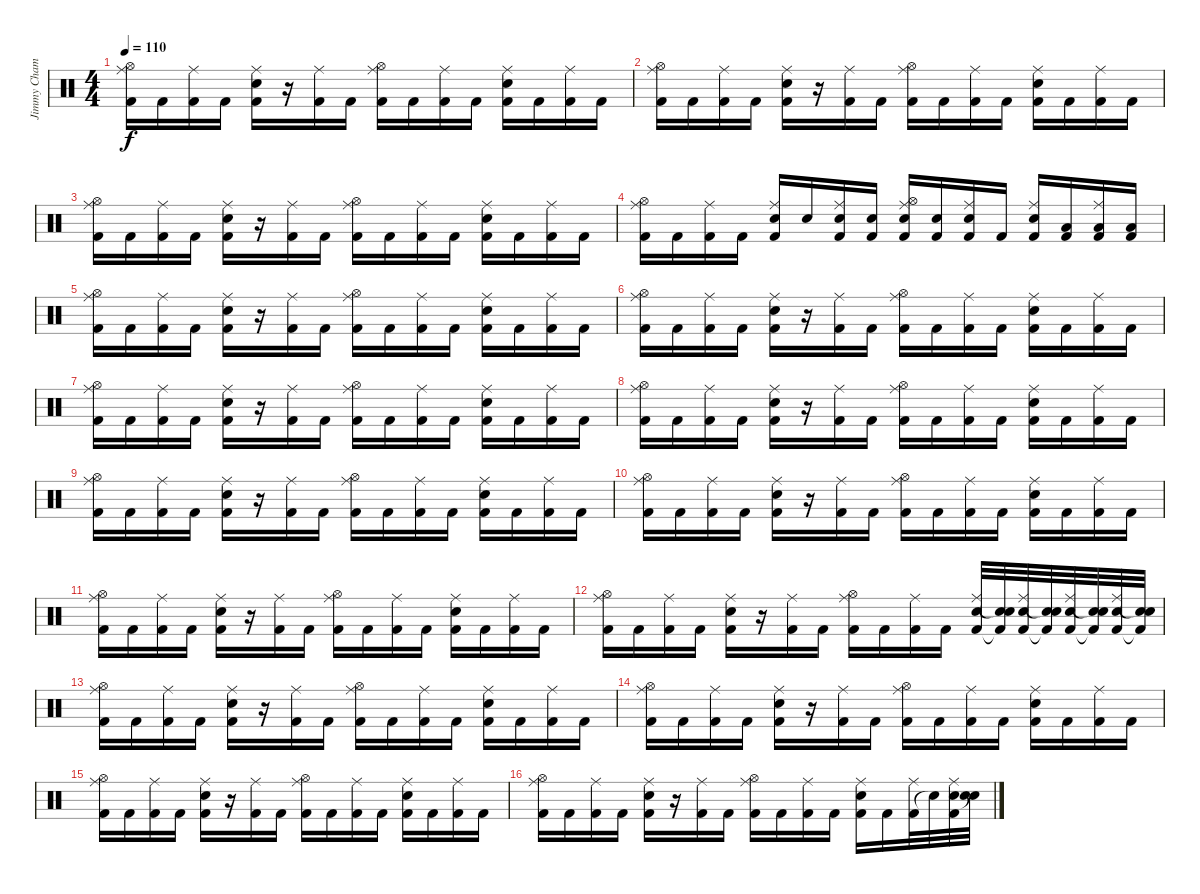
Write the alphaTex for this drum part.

\track ("Jimmy Chamberlin" "Jimmy Cham") {instrument percussion}
\staff {score}
\articulation defaults
\ts (4 4)
\tempo 110
\clef neutral
\ks c
("Kick (hit) 2" "Hi-Hat (open)" "Ride (middle)").16{dy f} "Kick (hit) 2".16 ("Kick (hit) 2" "Ride (middle)").16 "Kick (hit) 2".16 ("Kick (hit) 2" "Snare (hit) 2" "Ride (middle)").16 r.16 ("Kick (hit) 2" "Ride (middle)").16 "Kick (hit) 2".16 ("Kick (hit) 2" "Hi-Hat (open)" "Ride (middle)").16 "Kick (hit) 2".16 ("Kick (hit) 2" "Ride (middle)").16 "Kick (hit) 2".16 ("Kick (hit) 2" "Snare (hit) 2" "Ride (middle)").16 "Kick (hit) 2".16 ("Kick (hit) 2" "Ride (middle)").16 "Kick (hit) 2".16 |
("Kick (hit) 2" "Hi-Hat (open)" "Ride (middle)").16 "Kick (hit) 2".16 ("Kick (hit) 2" "Ride (middle)").16 "Kick (hit) 2".16 ("Kick (hit) 2" "Snare (hit) 2" "Ride (middle)").16 r.16 ("Kick (hit) 2" "Ride (middle)").16 "Kick (hit) 2".16 ("Kick (hit) 2" "Hi-Hat (open)" "Ride (middle)").16 "Kick (hit) 2".16 ("Kick (hit) 2" "Ride (middle)").16 "Kick (hit) 2".16 ("Kick (hit) 2" "Snare (hit) 2" "Ride (middle)").16 "Kick (hit) 2".16 ("Kick (hit) 2" "Ride (middle)").16 "Kick (hit) 2".16 |
("Kick (hit) 2" "Hi-Hat (open)" "Ride (middle)").16 "Kick (hit) 2".16 ("Kick (hit) 2" "Ride (middle)").16 "Kick (hit) 2".16 ("Kick (hit) 2" "Snare (hit) 2" "Ride (middle)").16 r.16 ("Kick (hit) 2" "Ride (middle)").16 "Kick (hit) 2".16 ("Kick (hit) 2" "Hi-Hat (open)" "Ride (middle)").16 "Kick (hit) 2".16 ("Kick (hit) 2" "Ride (middle)").16 "Kick (hit) 2".16 ("Kick (hit) 2" "Snare (hit) 2" "Ride (middle)").16 "Kick (hit) 2".16 ("Kick (hit) 2" "Ride (middle)").16 "Kick (hit) 2".16 |
("Kick (hit) 2" "Hi-Hat (open)" "Ride (middle)").16 "Kick (hit) 2".16 ("Kick (hit) 2" "Ride (middle)").16 "Kick (hit) 2".16 ("Kick (hit) 2" "Snare (hit) 2" "Ride (middle)").16 "Snare (hit) 2".16 ("Kick (hit) 2" "Snare (hit) 2" "Ride (middle)").16 ("Kick (hit) 2" "Snare (hit) 2").16 ("Kick (hit) 2" "Snare (hit) 2" "Hi-Hat (open)" "Ride (middle)").16 ("Kick (hit) 2" "Snare (hit) 2").16 ("Kick (hit) 2" "Snare (hit) 2" "Ride (middle)").16 "Kick (hit) 2".16 ("Kick (hit) 2" "Snare (hit) 2" "Ride (middle)").16 ("Kick (hit) 2" "Low Floor Tom (hit)").16 ("Kick (hit) 2" "Low Floor Tom (hit)" "Ride (middle)").16 ("Kick (hit) 2" "Low Floor Tom (hit)").16 |
("Kick (hit) 2" "Hi-Hat (open)" "Ride (middle)").16 "Kick (hit) 2".16 ("Kick (hit) 2" "Ride (middle)").16 "Kick (hit) 2".16 ("Kick (hit) 2" "Snare (hit) 2" "Ride (middle)").16 r.16 ("Kick (hit) 2" "Ride (middle)").16 "Kick (hit) 2".16 ("Kick (hit) 2" "Hi-Hat (open)" "Ride (middle)").16 "Kick (hit) 2".16 ("Kick (hit) 2" "Ride (middle)").16 "Kick (hit) 2".16 ("Kick (hit) 2" "Snare (hit) 2" "Ride (middle)").16 "Kick (hit) 2".16 ("Kick (hit) 2" "Ride (middle)").16 "Kick (hit) 2".16 |
("Kick (hit) 2" "Hi-Hat (open)" "Ride (middle)").16 "Kick (hit) 2".16 ("Kick (hit) 2" "Ride (middle)").16 "Kick (hit) 2".16 ("Kick (hit) 2" "Snare (hit) 2" "Ride (middle)").16 r.16 ("Kick (hit) 2" "Ride (middle)").16 "Kick (hit) 2".16 ("Kick (hit) 2" "Hi-Hat (open)" "Ride (middle)").16 "Kick (hit) 2".16 ("Kick (hit) 2" "Ride (middle)").16 "Kick (hit) 2".16 ("Kick (hit) 2" "Snare (hit) 2" "Ride (middle)").16 "Kick (hit) 2".16 ("Kick (hit) 2" "Ride (middle)").16 "Kick (hit) 2".16 |
("Kick (hit) 2" "Hi-Hat (open)" "Ride (middle)").16 "Kick (hit) 2".16 ("Kick (hit) 2" "Ride (middle)").16 "Kick (hit) 2".16 ("Kick (hit) 2" "Snare (hit) 2" "Ride (middle)").16 r.16 ("Kick (hit) 2" "Ride (middle)").16 "Kick (hit) 2".16 ("Kick (hit) 2" "Hi-Hat (open)" "Ride (middle)").16 "Kick (hit) 2".16 ("Kick (hit) 2" "Ride (middle)").16 "Kick (hit) 2".16 ("Kick (hit) 2" "Snare (hit) 2" "Ride (middle)").16 "Kick (hit) 2".16 ("Kick (hit) 2" "Ride (middle)").16 "Kick (hit) 2".16 |
("Kick (hit) 2" "Hi-Hat (open)" "Ride (middle)").16 "Kick (hit) 2".16 ("Kick (hit) 2" "Ride (middle)").16 "Kick (hit) 2".16 ("Kick (hit) 2" "Snare (hit) 2" "Ride (middle)").16 r.16 ("Kick (hit) 2" "Ride (middle)").16 "Kick (hit) 2".16 ("Kick (hit) 2" "Hi-Hat (open)" "Ride (middle)").16 "Kick (hit) 2".16 ("Kick (hit) 2" "Ride (middle)").16 "Kick (hit) 2".16 ("Kick (hit) 2" "Snare (hit) 2" "Ride (middle)").16 "Kick (hit) 2".16 ("Kick (hit) 2" "Ride (middle)").16 "Kick (hit) 2".16 |
("Kick (hit) 2" "Hi-Hat (open)" "Ride (middle)").16 "Kick (hit) 2".16 ("Kick (hit) 2" "Ride (middle)").16 "Kick (hit) 2".16 ("Kick (hit) 2" "Snare (hit) 2" "Ride (middle)").16 r.16 ("Kick (hit) 2" "Ride (middle)").16 "Kick (hit) 2".16 ("Kick (hit) 2" "Hi-Hat (open)" "Ride (middle)").16 "Kick (hit) 2".16 ("Kick (hit) 2" "Ride (middle)").16 "Kick (hit) 2".16 ("Kick (hit) 2" "Snare (hit) 2" "Ride (middle)").16 "Kick (hit) 2".16 ("Kick (hit) 2" "Ride (middle)").16 "Kick (hit) 2".16 |
("Kick (hit) 2" "Hi-Hat (open)" "Ride (middle)").16 "Kick (hit) 2".16 ("Kick (hit) 2" "Ride (middle)").16 "Kick (hit) 2".16 ("Kick (hit) 2" "Snare (hit) 2" "Ride (middle)").16 r.16 ("Kick (hit) 2" "Ride (middle)").16 "Kick (hit) 2".16 ("Kick (hit) 2" "Hi-Hat (open)" "Ride (middle)").16 "Kick (hit) 2".16 ("Kick (hit) 2" "Ride (middle)").16 "Kick (hit) 2".16 ("Kick (hit) 2" "Snare (hit) 2" "Ride (middle)").16 "Kick (hit) 2".16 ("Kick (hit) 2" "Ride (middle)").16 "Kick (hit) 2".16 |
("Kick (hit) 2" "Hi-Hat (open)" "Ride (middle)").16 "Kick (hit) 2".16 ("Kick (hit) 2" "Ride (middle)").16 "Kick (hit) 2".16 ("Kick (hit) 2" "Snare (hit) 2" "Ride (middle)").16 r.16 ("Kick (hit) 2" "Ride (middle)").16 "Kick (hit) 2".16 ("Kick (hit) 2" "Hi-Hat (open)" "Ride (middle)").16 "Kick (hit) 2".16 ("Kick (hit) 2" "Ride (middle)").16 "Kick (hit) 2".16 ("Kick (hit) 2" "Snare (hit) 2" "Ride (middle)").16 "Kick (hit) 2".16 ("Kick (hit) 2" "Ride (middle)").16 "Kick (hit) 2".16 |
("Kick (hit) 2" "Hi-Hat (open)" "Ride (middle)").16 "Kick (hit) 2".16 ("Kick (hit) 2" "Ride (middle)").16 "Kick (hit) 2".16 ("Kick (hit) 2" "Snare (hit) 2" "Ride (middle)").16 r.16 ("Kick (hit) 2" "Ride (middle)").16 "Kick (hit) 2".16 ("Kick (hit) 2" "Hi-Hat (open)" "Ride (middle)").16 "Kick (hit) 2".16 ("Kick (hit) 2" "Ride (middle)").16 "Kick (hit) 2".16 ("Kick (hit) 2" "Snare (hit) 2" "Ride (middle)").32 ("Kick (hit) 2"{t} "Snare (hit) 2" "Snare (hit)"{t}).32 ("Kick (hit) 2" "Snare (hit) 2" "Ride (middle)").32 ("Kick (hit) 2"{t} "Snare (hit) 2" "Snare (hit)"{t}).32 ("Kick (hit) 2" "Snare (hit) 2" "Ride (middle)").32 ("Kick (hit) 2"{t} "Snare (hit) 2" "Snare (hit)"{t}).32 ("Kick (hit) 2" "Snare (hit) 2" "Ride (middle)").32 ("Kick (hit) 2"{t} "Snare (hit) 2" "Snare (hit)"{t}).32 |
("Kick (hit) 2" "Hi-Hat (open)" "Ride (middle)").16 "Kick (hit) 2".16 ("Kick (hit) 2" "Ride (middle)").16 "Kick (hit) 2".16 ("Kick (hit) 2" "Snare (hit) 2" "Ride (middle)").16 r.16 ("Kick (hit) 2" "Ride (middle)").16 "Kick (hit) 2".16 ("Kick (hit) 2" "Hi-Hat (open)" "Ride (middle)").16 "Kick (hit) 2".16 ("Kick (hit) 2" "Ride (middle)").16 "Kick (hit) 2".16 ("Kick (hit) 2" "Snare (hit) 2" "Ride (middle)").16 "Kick (hit) 2".16 ("Kick (hit) 2" "Ride (middle)").16 "Kick (hit) 2".16 |
("Kick (hit) 2" "Hi-Hat (open)" "Ride (middle)").16 "Kick (hit) 2".16 ("Kick (hit) 2" "Ride (middle)").16 "Kick (hit) 2".16 ("Kick (hit) 2" "Snare (hit) 2" "Ride (middle)").16 r.16 ("Kick (hit) 2" "Ride (middle)").16 "Kick (hit) 2".16 ("Kick (hit) 2" "Hi-Hat (open)" "Ride (middle)").16 "Kick (hit) 2".16 ("Kick (hit) 2" "Ride (middle)").16 "Kick (hit) 2".16 ("Kick (hit) 2" "Snare (hit) 2" "Ride (middle)").16 "Kick (hit) 2".16 ("Kick (hit) 2" "Ride (middle)").16 "Kick (hit) 2".16 |
("Kick (hit) 2" "Hi-Hat (open)" "Ride (middle)").16 "Kick (hit) 2".16 ("Kick (hit) 2" "Ride (middle)").16 "Kick (hit) 2".16 ("Kick (hit) 2" "Snare (hit) 2" "Ride (middle)").16 r.16 ("Kick (hit) 2" "Ride (middle)").16 "Kick (hit) 2".16 ("Kick (hit) 2" "Hi-Hat (open)" "Ride (middle)").16 "Kick (hit) 2".16 ("Kick (hit) 2" "Ride (middle)").16 "Kick (hit) 2".16 ("Kick (hit) 2" "Snare (hit) 2" "Ride (middle)").16 "Kick (hit) 2".16 ("Kick (hit) 2" "Ride (middle)").16 "Kick (hit) 2".16 |
("Kick (hit) 2" "Hi-Hat (open)" "Ride (middle)").16 "Kick (hit) 2".16 ("Kick (hit) 2" "Ride (middle)").16 "Kick (hit) 2".16 ("Kick (hit) 2" "Snare (hit) 2" "Ride (middle)").16 r.16 ("Kick (hit) 2" "Ride (middle)").16 "Kick (hit) 2".16 ("Kick (hit) 2" "Hi-Hat (open)" "Ride (middle)").16 "Kick (hit) 2".16 ("Kick (hit) 2" "Ride (middle)").16 "Kick (hit) 2".16 ("Kick (hit) 2" "Snare (hit) 2" "Ride (middle)").16 "Kick (hit) 2".16 ("Kick (hit) 2" "Ride (middle)").32 "Snare (hit)"{t}.32 ("Kick (hit) 2" "Snare (hit) 2" "Ride (middle)").32 ("Snare (hit)"{t} "Snare (hit) 2").32
